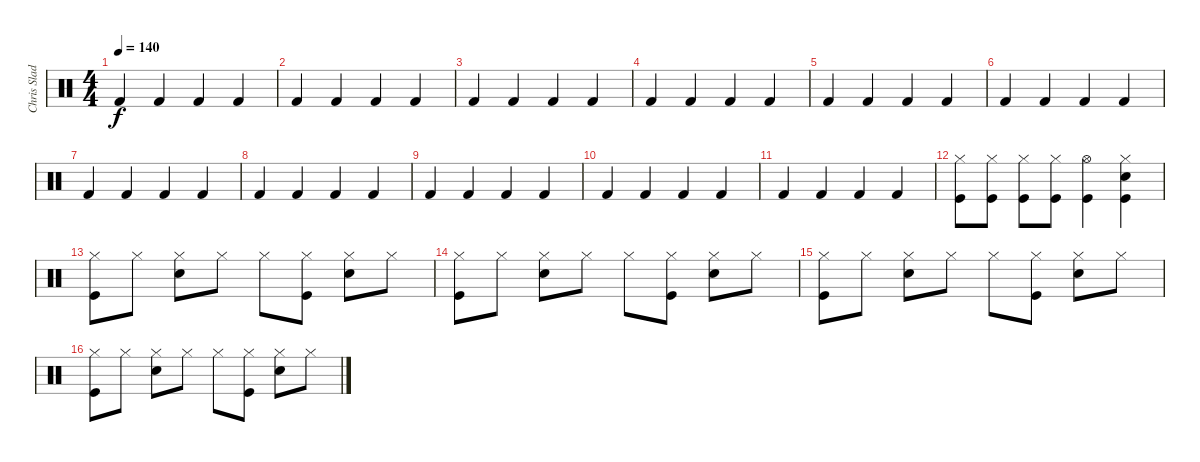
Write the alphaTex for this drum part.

\track ("Chris Slade" "Chris Slad") {instrument percussion}
\staff {score}
\articulation defaults
\ts (4 4)
\tempo 140
\clef neutral
\ks c "Kick (hit) 2".4{dy f} "Kick (hit) 2".4 "Kick (hit) 2".4 "Kick (hit) 2".4
|
"Kick (hit) 2".4 "Kick (hit) 2".4 "Kick (hit) 2".4 "Kick (hit) 2".4 |
"Kick (hit) 2".4 "Kick (hit) 2".4 "Kick (hit) 2".4 "Kick (hit) 2".4 |
"Kick (hit) 2".4 "Kick (hit) 2".4 "Kick (hit) 2".4 "Kick (hit) 2".4 |
"Kick (hit) 2".4 "Kick (hit) 2".4 "Kick (hit) 2".4 "Kick (hit) 2".4 |
"Kick (hit) 2".4 "Kick (hit) 2".4 "Kick (hit) 2".4 "Kick (hit) 2".4 |
"Kick (hit) 2".4 "Kick (hit) 2".4 "Kick (hit) 2".4 "Kick (hit) 2".4 |
"Kick (hit) 2".4 "Kick (hit) 2".4 "Kick (hit) 2".4 "Kick (hit) 2".4 |
"Kick (hit) 2".4 "Kick (hit) 2".4 "Kick (hit) 2".4 "Kick (hit) 2".4 |
"Kick (hit) 2".4 "Kick (hit) 2".4 "Kick (hit) 2".4 "Kick (hit) 2".4 |
"Kick (hit) 2".4 "Kick (hit) 2".4 "Kick (hit) 2".4 "Kick (hit) 2".4 |
("Hi-Hat (closed)" "Kick (hit)").8 ("Hi-Hat (closed)" "Kick (hit)").8 ("Hi-Hat (closed)" "Kick (hit)").8 ("Hi-Hat (closed)" "Kick (hit)").8 ("Hi-Hat (open)" "Kick (hit)").4 ("Hi-Hat (closed)" "Snare (hit) 2" "Kick (hit)").4 |
("Hi-Hat (closed)" "Kick (hit)").8 "Hi-Hat (closed)".8 ("Hi-Hat (closed)" "Snare (hit) 2").8 "Hi-Hat (closed)".8 "Hi-Hat (closed)".8 ("Hi-Hat (closed)" "Kick (hit)").8 ("Hi-Hat (closed)" "Snare (hit) 2").8 "Hi-Hat (closed)".8 |
("Hi-Hat (closed)" "Kick (hit)").8 "Hi-Hat (closed)".8 ("Hi-Hat (closed)" "Snare (hit) 2").8 "Hi-Hat (closed)".8 "Hi-Hat (closed)".8 ("Hi-Hat (closed)" "Kick (hit)").8 ("Hi-Hat (closed)" "Snare (hit) 2").8 "Hi-Hat (closed)".8 |
("Hi-Hat (closed)" "Kick (hit)").8 "Hi-Hat (closed)".8 ("Hi-Hat (closed)" "Snare (hit) 2").8 "Hi-Hat (closed)".8 "Hi-Hat (closed)".8 ("Hi-Hat (closed)" "Kick (hit)").8 ("Hi-Hat (closed)" "Snare (hit) 2").8 "Hi-Hat (closed)".8 |
("Hi-Hat (closed)" "Kick (hit)").8 "Hi-Hat (closed)".8 ("Hi-Hat (closed)" "Snare (hit) 2").8 "Hi-Hat (closed)".8 "Hi-Hat (closed)".8 ("Hi-Hat (closed)" "Kick (hit)").8 ("Hi-Hat (closed)" "Snare (hit) 2").8 "Hi-Hat (closed)".8
